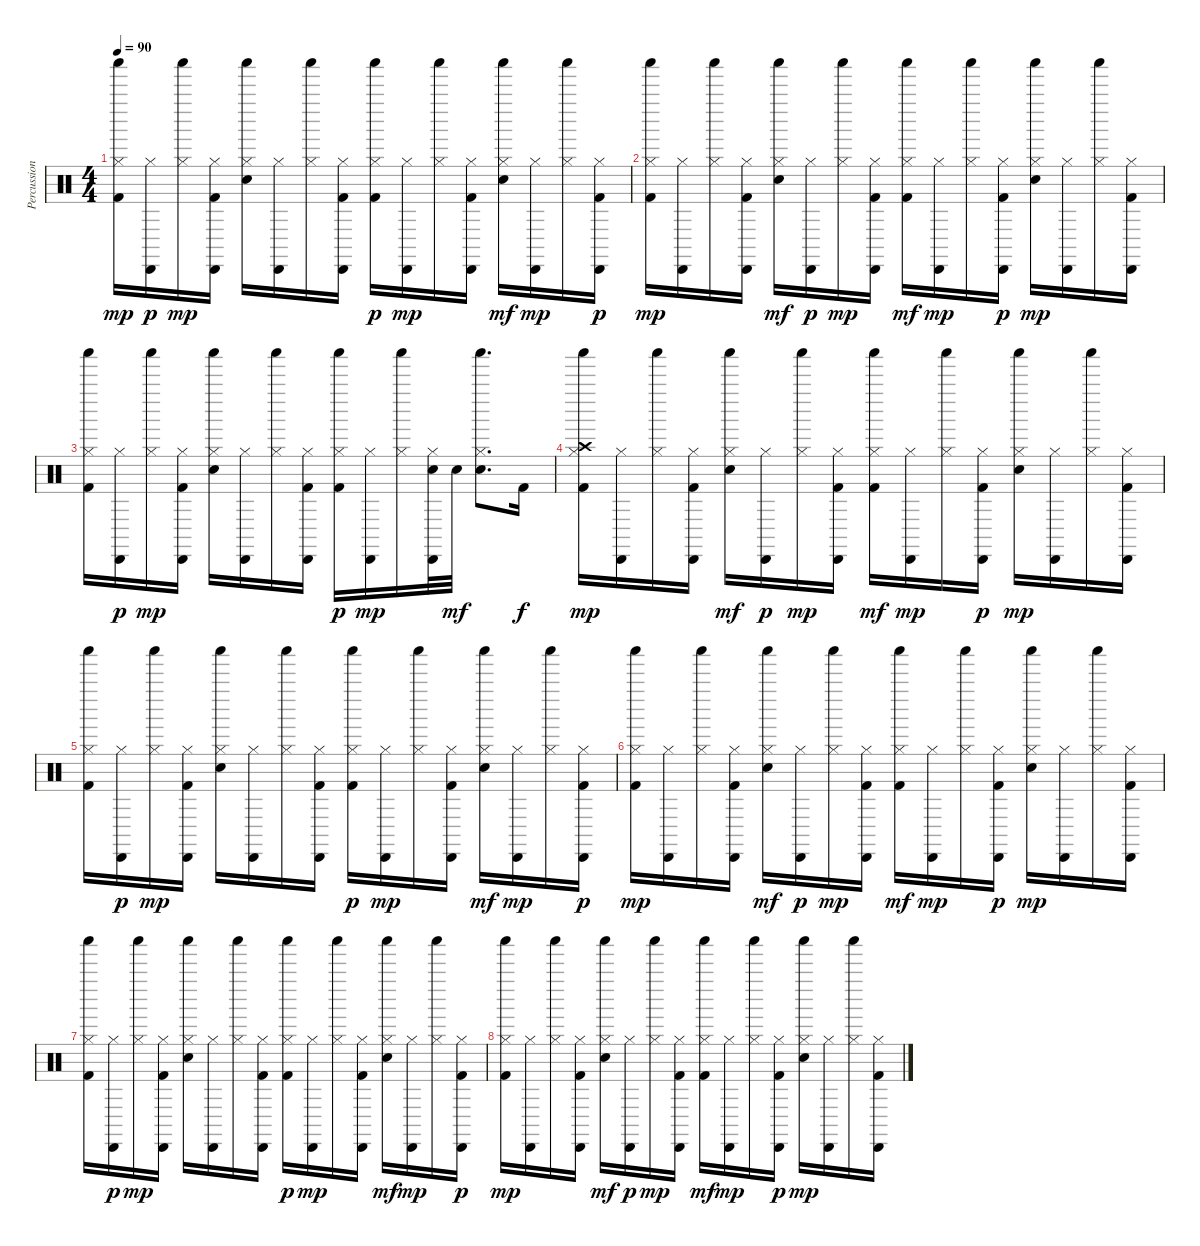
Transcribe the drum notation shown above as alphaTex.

\track ("Percussions" "Percussion") {instrument percussion}
\staff {score}
\articulation defaults
\ts (4 4)
\tempo 90
\clef neutral
\ks c
("Kick (hit) 2" "Hi-Hat (closed)" "Shaker (hit)").16{dy mp} ("Hi-Hat (closed)" "Cabasa (hit)").16{dy p} ("Hi-Hat (closed)" "Shaker (hit)").16{dy mp} ("Kick (hit) 2" "Hi-Hat (closed)" "Cabasa (hit)").16 ("Electric Snare (hit)" "Hi-Hat (closed)" "Shaker (hit)").16 ("Hi-Hat (closed)" "Cabasa (hit)").16 ("Hi-Hat (closed)" "Shaker (hit)").16 ("Kick (hit) 2" "Hi-Hat (closed)" "Cabasa (hit)").16 ("Kick (hit) 2" "Hi-Hat (closed)" "Shaker (hit)").16{dy p} ("Hi-Hat (closed)" "Cabasa (hit)").16{dy mp} ("Hi-Hat (closed)" "Shaker (hit)").16 ("Kick (hit) 2" "Hi-Hat (closed)" "Cabasa (hit)").16 ("Electric Snare (hit)" "Hi-Hat (closed)" "Shaker (hit)").16{dy mf} ("Hi-Hat (closed)" "Cabasa (hit)").16{dy mp} ("Hi-Hat (closed)" "Shaker (hit)").16 ("Kick (hit) 2" "Hi-Hat (closed)" "Cabasa (hit)").16{dy p} |
("Kick (hit) 2" "Hi-Hat (closed)" "Shaker (hit)").16{dy mp} ("Hi-Hat (closed)" "Cabasa (hit)").16 ("Hi-Hat (closed)" "Shaker (hit)").16 ("Kick (hit) 2" "Hi-Hat (closed)" "Cabasa (hit)").16 ("Electric Snare (hit)" "Hi-Hat (closed)" "Shaker (hit)").16{dy mf} ("Hi-Hat (closed)" "Cabasa (hit)").16{dy p} ("Hi-Hat (closed)" "Shaker (hit)").16{dy mp} ("Kick (hit) 2" "Hi-Hat (closed)" "Cabasa (hit)").16 ("Kick (hit) 2" "Hi-Hat (closed)" "Shaker (hit)").16{dy mf} ("Hi-Hat (closed)" "Cabasa (hit)").16{dy mp} ("Hi-Hat (closed)" "Shaker (hit)").16 ("Kick (hit) 2" "Hi-Hat (closed)" "Cabasa (hit)").16{dy p} ("Electric Snare (hit)" "Hi-Hat (closed)" "Shaker (hit)").16{dy mp} ("Hi-Hat (closed)" "Cabasa (hit)").16 ("Hi-Hat (closed)" "Shaker (hit)").16 ("Kick (hit) 2" "Hi-Hat (closed)" "Cabasa (hit)").16 |
("Kick (hit) 2" "Hi-Hat (closed)" "Shaker (hit)").16 ("Hi-Hat (closed)" "Cabasa (hit)").16{dy p} ("Hi-Hat (closed)" "Shaker (hit)").16{dy mp} ("Kick (hit) 2" "Hi-Hat (closed)" "Cabasa (hit)").16 ("Electric Snare (hit)" "Hi-Hat (closed)" "Shaker (hit)").16 ("Hi-Hat (closed)" "Cabasa (hit)").16 ("Hi-Hat (closed)" "Shaker (hit)").16 ("Kick (hit) 2" "Hi-Hat (closed)" "Cabasa (hit)").16 ("Kick (hit) 2" "Hi-Hat (closed)" "Shaker (hit)").16{dy p} ("Hi-Hat (closed)" "Cabasa (hit)").16{dy mp} ("Hi-Hat (closed)" "Shaker (hit)").16 ("Electric Snare (hit)" "Hi-Hat (closed)" "Cabasa (hit)").32 "Snare (hit) 2".32{dy mf} ("Electric Snare (hit)" "Hi-Hat (closed)" "Shaker (hit)").8{d} "Kick (hit) 2".16{dy f} |
("Kick (hit) 2" "Hi-Hat (closed)" "Crash high (hit)" "Shaker (hit)").16{dy mp} ("Hi-Hat (closed)" "Cabasa (hit)").16 ("Hi-Hat (closed)" "Shaker (hit)").16 ("Kick (hit) 2" "Hi-Hat (closed)" "Cabasa (hit)").16 ("Electric Snare (hit)" "Hi-Hat (closed)" "Shaker (hit)").16{dy mf} ("Hi-Hat (closed)" "Cabasa (hit)").16{dy p} ("Hi-Hat (closed)" "Shaker (hit)").16{dy mp} ("Kick (hit) 2" "Hi-Hat (closed)" "Cabasa (hit)").16 ("Kick (hit) 2" "Hi-Hat (closed)" "Shaker (hit)").16{dy mf} ("Hi-Hat (closed)" "Cabasa (hit)").16{dy mp} ("Hi-Hat (closed)" "Shaker (hit)").16 ("Kick (hit) 2" "Hi-Hat (closed)" "Cabasa (hit)").16{dy p} ("Electric Snare (hit)" "Hi-Hat (closed)" "Shaker (hit)").16{dy mp} ("Hi-Hat (closed)" "Cabasa (hit)").16 ("Hi-Hat (closed)" "Shaker (hit)").16 ("Kick (hit) 2" "Hi-Hat (closed)" "Cabasa (hit)").16 |
("Kick (hit) 2" "Hi-Hat (closed)" "Shaker (hit)").16 ("Hi-Hat (closed)" "Cabasa (hit)").16{dy p} ("Hi-Hat (closed)" "Shaker (hit)").16{dy mp} ("Kick (hit) 2" "Hi-Hat (closed)" "Cabasa (hit)").16 ("Electric Snare (hit)" "Hi-Hat (closed)" "Shaker (hit)").16 ("Hi-Hat (closed)" "Cabasa (hit)").16 ("Hi-Hat (closed)" "Shaker (hit)").16 ("Kick (hit) 2" "Hi-Hat (closed)" "Cabasa (hit)").16 ("Kick (hit) 2" "Hi-Hat (closed)" "Shaker (hit)").16{dy p} ("Hi-Hat (closed)" "Cabasa (hit)").16{dy mp} ("Hi-Hat (closed)" "Shaker (hit)").16 ("Kick (hit) 2" "Hi-Hat (closed)" "Cabasa (hit)").16 ("Electric Snare (hit)" "Hi-Hat (closed)" "Shaker (hit)").16{dy mf} ("Hi-Hat (closed)" "Cabasa (hit)").16{dy mp} ("Hi-Hat (closed)" "Shaker (hit)").16 ("Kick (hit) 2" "Hi-Hat (closed)" "Cabasa (hit)").16{dy p} |
("Kick (hit) 2" "Hi-Hat (closed)" "Shaker (hit)").16{dy mp} ("Hi-Hat (closed)" "Cabasa (hit)").16 ("Hi-Hat (closed)" "Shaker (hit)").16 ("Kick (hit) 2" "Hi-Hat (closed)" "Cabasa (hit)").16 ("Electric Snare (hit)" "Hi-Hat (closed)" "Shaker (hit)").16{dy mf} ("Hi-Hat (closed)" "Cabasa (hit)").16{dy p} ("Hi-Hat (closed)" "Shaker (hit)").16{dy mp} ("Kick (hit) 2" "Hi-Hat (closed)" "Cabasa (hit)").16 ("Kick (hit) 2" "Hi-Hat (closed)" "Shaker (hit)").16{dy mf} ("Hi-Hat (closed)" "Cabasa (hit)").16{dy mp} ("Hi-Hat (closed)" "Shaker (hit)").16 ("Kick (hit) 2" "Hi-Hat (closed)" "Cabasa (hit)").16{dy p} ("Electric Snare (hit)" "Hi-Hat (closed)" "Shaker (hit)").16{dy mp} ("Hi-Hat (closed)" "Cabasa (hit)").16 ("Hi-Hat (closed)" "Shaker (hit)").16 ("Kick (hit) 2" "Hi-Hat (closed)" "Cabasa (hit)").16 |
("Kick (hit) 2" "Hi-Hat (closed)" "Shaker (hit)").16 ("Hi-Hat (closed)" "Cabasa (hit)").16{dy p} ("Hi-Hat (closed)" "Shaker (hit)").16{dy mp} ("Kick (hit) 2" "Hi-Hat (closed)" "Cabasa (hit)").16 ("Electric Snare (hit)" "Hi-Hat (closed)" "Shaker (hit)").16 ("Hi-Hat (closed)" "Cabasa (hit)").16 ("Hi-Hat (closed)" "Shaker (hit)").16 ("Kick (hit) 2" "Hi-Hat (closed)" "Cabasa (hit)").16 ("Kick (hit) 2" "Hi-Hat (closed)" "Shaker (hit)").16{dy p} ("Hi-Hat (closed)" "Cabasa (hit)").16{dy mp} ("Hi-Hat (closed)" "Shaker (hit)").16 ("Kick (hit) 2" "Hi-Hat (closed)" "Cabasa (hit)").16 ("Electric Snare (hit)" "Hi-Hat (closed)" "Shaker (hit)").16{dy mf} ("Hi-Hat (closed)" "Cabasa (hit)").16{dy mp} ("Hi-Hat (closed)" "Shaker (hit)").16 ("Kick (hit) 2" "Hi-Hat (closed)" "Cabasa (hit)").16{dy p} |
("Kick (hit) 2" "Hi-Hat (closed)" "Shaker (hit)").16{dy mp} ("Hi-Hat (closed)" "Cabasa (hit)").16 ("Hi-Hat (closed)" "Shaker (hit)").16 ("Kick (hit) 2" "Hi-Hat (closed)" "Cabasa (hit)").16 ("Electric Snare (hit)" "Hi-Hat (closed)" "Shaker (hit)").16{dy mf} ("Hi-Hat (closed)" "Cabasa (hit)").16{dy p} ("Hi-Hat (closed)" "Shaker (hit)").16{dy mp} ("Kick (hit) 2" "Hi-Hat (closed)" "Cabasa (hit)").16 ("Kick (hit) 2" "Hi-Hat (closed)" "Shaker (hit)").16{dy mf} ("Hi-Hat (closed)" "Cabasa (hit)").16{dy mp} ("Hi-Hat (closed)" "Shaker (hit)").16 ("Kick (hit) 2" "Hi-Hat (closed)" "Cabasa (hit)").16{dy p} ("Electric Snare (hit)" "Hi-Hat (closed)" "Shaker (hit)").16{dy mp} ("Hi-Hat (closed)" "Cabasa (hit)").16 ("Hi-Hat (closed)" "Shaker (hit)").16 ("Kick (hit) 2" "Hi-Hat (closed)" "Cabasa (hit)").16
